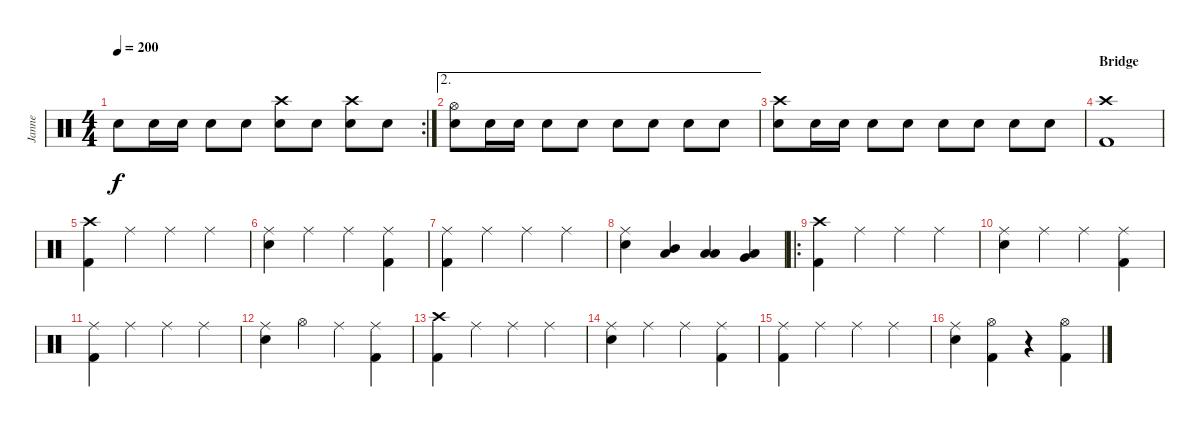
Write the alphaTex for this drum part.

\track ("Janne" "Janne") {instrument percussion}
\staff {score}
\articulation defaults
\rc 2
\ts (4 4)
\tempo 200
\clef neutral
\ks c "Electric Snare (hit)".8{dy f} "Electric Snare (hit)".16 "Electric Snare (hit)".16 "Electric Snare (hit)".8 "Electric Snare (hit)".8
("Crash high (hit)" "Electric Snare (hit)").8 "Electric Snare (hit)".8 ("Crash high (hit)" "Electric Snare (hit)").8 "Electric Snare (hit)".8 |
\ae 2
("Hi-Hat (open)" "Electric Snare (hit)").8 "Electric Snare (hit)".16 "Electric Snare (hit)".16 "Electric Snare (hit)".8 "Electric Snare (hit)".8 "Electric Snare (hit)".8 "Electric Snare (hit)".8 "Electric Snare (hit)".8 "Electric Snare (hit)".8 |
("Crash high (hit)" "Electric Snare (hit)").8 "Electric Snare (hit)".16 "Electric Snare (hit)".16 "Electric Snare (hit)".8 "Electric Snare (hit)".8 "Electric Snare (hit)".8 "Electric Snare (hit)".8 "Electric Snare (hit)".8 "Electric Snare (hit)".8 |
\section ("" "Bridge")
("Crash high (hit)" "Kick (hit) 2").1 |
("Crash high (hit)" "Kick (hit) 2").4 "Ride (middle)".4 "Ride (middle)".4 "Ride (middle)".4 |
("Ride (middle)" "Electric Snare (hit)").4 "Ride (middle)".4 "Ride (middle)".4 ("Ride (middle)" "Kick (hit) 2").4 |
("Ride (middle)" "Kick (hit) 2").4 "Ride (middle)".4 "Ride (middle)".4 "Ride (middle)".4 |
("Ride (middle)" "Electric Snare (hit)").4 ("Mid Tom (hit)" "Low Floor Tom (hit)").4 ("Low Tom (hit)" "Low Floor Tom (hit)").4 ("Very Low Tom (hit)" "Low Floor Tom (hit)").4 |
\ro
("Crash high (hit)" "Kick (hit) 2").4 "Ride (middle)".4 "Ride (middle)".4 "Ride (middle)".4 |
("Ride (middle)" "Electric Snare (hit)").4 "Ride (middle)".4 "Ride (middle)".4 ("Ride (middle)" "Kick (hit) 2").4 |
("Ride (middle)" "Kick (hit) 2").4 "Ride (middle)".4 "Ride (middle)".4 "Ride (middle)".4 |
("Ride (middle)" "Electric Snare (hit)").4 "Hi-Hat (open)".4 "Ride (middle)".4 ("Ride (middle)" "Kick (hit) 2").4 |
("Crash high (hit)" "Kick (hit) 2").4 "Ride (middle)".4 "Ride (middle)".4 "Ride (middle)".4 |
("Ride (middle)" "Electric Snare (hit)").4 "Ride (middle)".4 "Ride (middle)".4 ("Ride (middle)" "Kick (hit) 2").4 |
("Ride (middle)" "Kick (hit) 2").4 "Ride (middle)".4 "Ride (middle)".4 "Ride (middle)".4 |
("Ride (middle)" "Electric Snare (hit)").4 ("Hi-Hat (open)" "Kick (hit) 2").4 r.4 ("Hi-Hat (open)" "Kick (hit) 2").4
